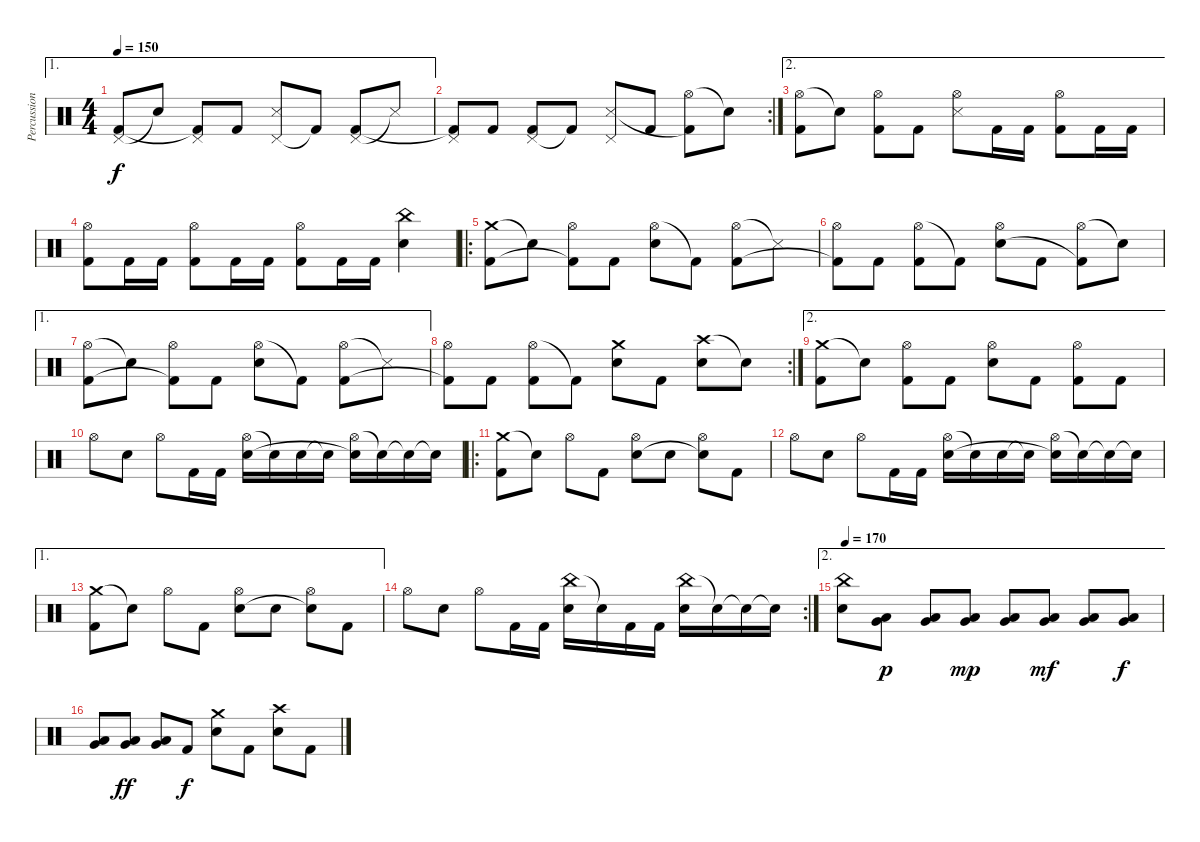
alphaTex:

\track ("Percussion" "Percussion") {instrument percussion}
\staff {score}
\articulation defaults
\ae 1
\ts (4 4)
\tempo 150
\clef neutral
\ks c
("Pedal Hi-Hat (hit)" "Kick (hit) 2").8{dy f} "Snare (hit)"{t}.8 ("Pedal Hi-Hat (hit)" "Kick (hit) 2"{t}).8 "Kick (hit) 2".8 ("Pedal Hi-Hat (hit)" "Snare (side stick) 3").8 "Kick (hit) 2"{t}.8 ("Pedal Hi-Hat (hit)" "Kick (hit) 2").8 "Snare (side stick) 3"{t}.8 |
\rc 2
("Pedal Hi-Hat (hit)" "Kick (hit) 2"{t}).8 "Kick (hit) 2".8 ("Pedal Hi-Hat (hit)" "Kick (hit) 2").8 "Kick (hit) 2"{t}.8 ("Pedal Hi-Hat (hit)" "Snare (side stick) 3").8 "Kick (hit) 2".8 ("Hi-Hat (open)" "Kick (hit) 2"{t}).8 "Snare (hit)"{t}.8 |
\ae 2
("Hi-Hat (open)" "Kick (hit) 2").8 "Snare (hit)"{t}.8 ("Hi-Hat (open)" "Kick (hit) 2").8 "Kick (hit) 2".8 ("Hi-Hat (open)" "Snare (side stick) 3").8 "Kick (hit) 2".16 "Kick (hit) 2".16 ("Hi-Hat (open)" "Kick (hit) 2").8 "Kick (hit) 2".16 "Kick (hit) 2".16 |
("Hi-Hat (open)" "Kick (hit) 2").8 "Kick (hit) 2".16 "Kick (hit) 2".16 ("Hi-Hat (open)" "Kick (hit) 2").8 "Kick (hit) 2".16 "Kick (hit) 2".16 ("Hi-Hat (open)" "Kick (hit) 2").8 "Kick (hit) 2".16 "Kick (hit) 2".16 ("China (hit)" "Electric Snare (hit)").4 |
\ro
("Crash medium (hit)" "Kick (hit) 2").8 "Snare (hit)"{t}.8 ("Hi-Hat (open)" "Kick (hit) 2"{t}).8 "Kick (hit) 2".8 ("Hi-Hat (open)" "Electric Snare (hit)").8 "Kick (hit) 2"{t}.8 ("Hi-Hat (open)" "Kick (hit) 2").8 "Snare (side stick) 3"{t}.8 |
("Hi-Hat (open)" "Kick (hit) 2"{t}).8 "Kick (hit) 2".8 ("Hi-Hat (open)" "Kick (hit) 2").8 "Kick (hit) 2"{t}.8 ("Hi-Hat (open)" "Electric Snare (hit)").8 "Kick (hit) 2".8 ("Hi-Hat (open)" "Kick (hit) 2"{t}).8 "Snare (hit)"{t}.8 |
\ae 1
("Hi-Hat (open)" "Kick (hit) 2").8 "Snare (hit)"{t}.8 ("Hi-Hat (open)" "Kick (hit) 2"{t}).8 "Kick (hit) 2".8 ("Hi-Hat (open)" "Electric Snare (hit)").8 "Kick (hit) 2"{t}.8 ("Hi-Hat (open)" "Kick (hit) 2").8 "Snare (side stick) 3"{t}.8 |
\rc 2
("Hi-Hat (open)" "Kick (hit) 2"{t}).8 "Kick (hit) 2".8 ("Hi-Hat (open)" "Kick (hit) 2").8 "Kick (hit) 2"{t}.8 ("Crash medium (hit)" "Electric Snare (hit)").8 "Kick (hit) 2".8 ("Crash high (hit)" "Electric Snare (hit)").8 "Snare (hit)"{t}.8 |
\ae 2
("Crash medium (hit)" "Kick (hit) 2").8 "Snare (hit)"{t}.8 ("Hi-Hat (open)" "Kick (hit) 2").8 "Kick (hit) 2".8 ("Hi-Hat (open)" "Electric Snare (hit)").8 "Kick (hit) 2".8 ("Hi-Hat (open)" "Kick (hit) 2").8 "Kick (hit) 2".8 |
"Hi-Hat (open)".8 "Electric Snare (hit)".8 "Hi-Hat (open)".8 "Kick (hit) 2".16 "Kick (hit) 2".16 ("Hi-Hat (open)" "Electric Snare (hit)").16 "Electric Snare (hit)"{t}.16 "Electric Snare (hit)".16 "Snare (hit)"{t}.16 ("Hi-Hat (open)" "Snare (hit)"{t}).16 "Snare (hit)"{t}.16 "Snare (hit)"{t}.16 "Snare (hit)"{t}.16 |
\ro
("Crash medium (hit)" "Kick (hit) 2").8 "Snare (hit)"{t}.8 "Hi-Hat (open)".8 "Kick (hit) 2".8 ("Hi-Hat (open)" "Electric Snare (hit)").8 "Electric Snare (hit)".8 ("Hi-Hat (open)" "Electric Snare (hit)"{t}).8 "Kick (hit) 2".8 |
"Hi-Hat (open)".8 "Electric Snare (hit)".8 "Hi-Hat (open)".8 "Kick (hit) 2".16 "Kick (hit) 2".16 ("Hi-Hat (open)" "Electric Snare (hit)").16 "Electric Snare (hit)"{t}.16 "Electric Snare (hit)".16 "Snare (hit)"{t}.16 ("Hi-Hat (open)" "Snare (hit)"{t}).16 "Snare (hit)"{t}.16 "Snare (hit)"{t}.16 "Snare (hit)"{t}.16 |
\ae 1
("Crash medium (hit)" "Kick (hit) 2").8 "Snare (hit)"{t}.8 "Hi-Hat (open)".8 "Kick (hit) 2".8 ("Hi-Hat (open)" "Electric Snare (hit)").8 "Electric Snare (hit)".8 ("Hi-Hat (open)" "Electric Snare (hit)"{t}).8 "Kick (hit) 2".8 |
\rc 2 "Hi-Hat (open)".8 "Electric Snare (hit)".8 "Hi-Hat (open)".8 "Kick (hit) 2".16 "Kick (hit) 2".16
("China (hit)" "Electric Snare (hit)").16 "Electric Snare (hit)"{t}.16 "Kick (hit) 2".16 "Kick (hit) 2".16 ("China (hit)" "Electric Snare (hit)").16 "Snare (hit)"{t}.16 "Snare (hit)"{t}.16 "Snare (hit)"{t}.16 |
\ae 2
\tempo 170
("China (hit)" "Electric Snare (hit)").8 ("Very Low Tom (hit)" "Low Tom (hit)").8{dy p} ("Very Low Tom (hit)" "Low Tom (hit)").8 ("Very Low Tom (hit)" "Low Tom (hit)").8{dy mp} ("Very Low Tom (hit)" "Low Tom (hit)").8 ("Very Low Tom (hit)" "Low Tom (hit)").8{dy mf} ("Very Low Tom (hit)" "Low Tom (hit)").8 ("Very Low Tom (hit)" "Low Tom (hit)").8{dy f} |
("Very Low Tom (hit)" "Low Tom (hit)").8 ("Very Low Tom (hit)" "Low Tom (hit)").8{dy ff} ("Very Low Tom (hit)" "Low Tom (hit)").8 "Kick (hit) 2".8{dy f} ("Crash medium (hit)" "Electric Snare (hit)").8 "Kick (hit) 2".8 ("Crash high (hit)" "Electric Snare (hit)").8 "Kick (hit) 2".8
